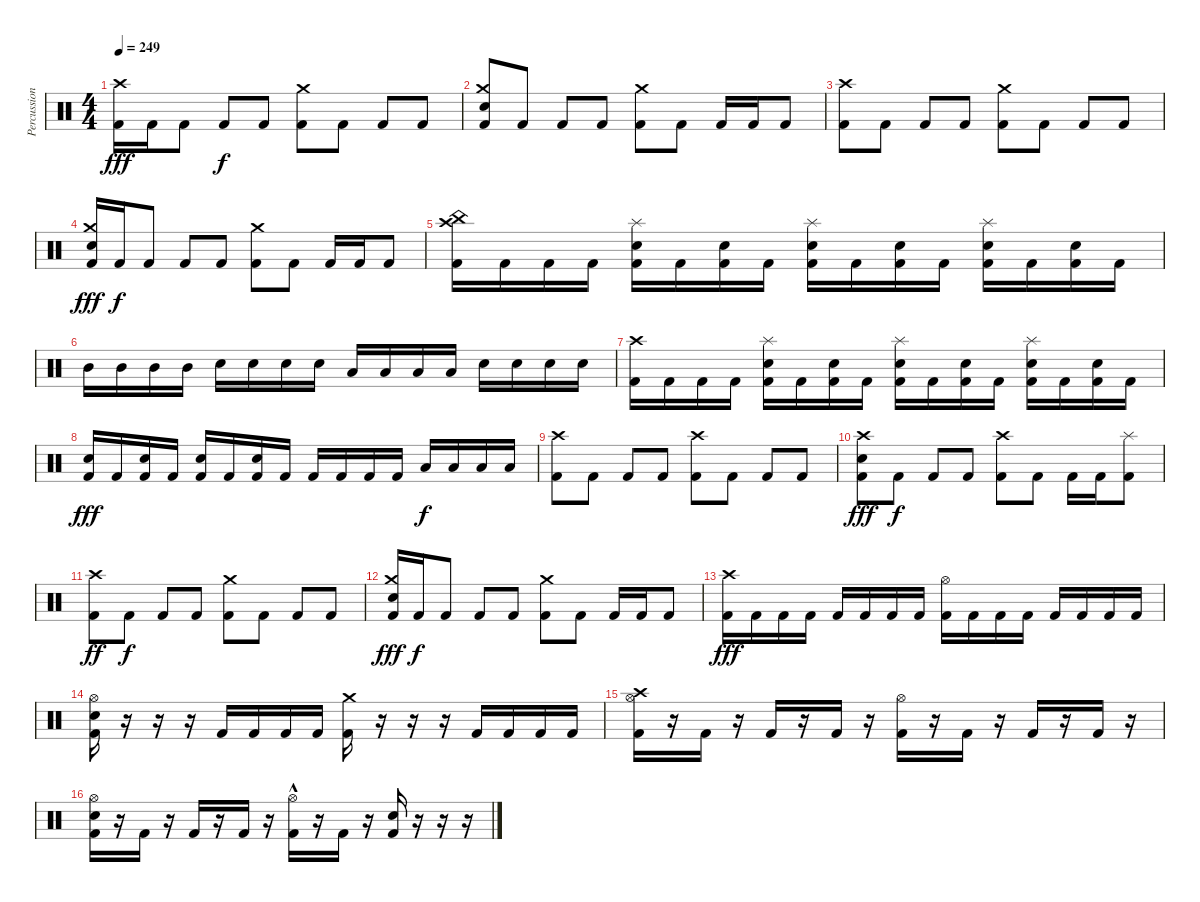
\track ("Percussion" "Percussion") {instrument percussion}
\staff {score}
\articulation defaults
\ts (4 4)
\tempo 249
\clef neutral
\ks c
("Crash high (hit)" "Kick (hit) 2").16{dy fff} "Kick (hit) 2".16 "Kick (hit) 2".8 "Kick (hit) 2".8{dy f} "Kick (hit) 2".8 ("Crash medium (hit)" "Kick (hit) 2").8 "Kick (hit) 2".8 "Kick (hit) 2".8 "Kick (hit) 2".8 |
("Crash medium (hit)" "Electric Snare (hit)" "Kick (hit) 2").8 "Kick (hit) 2".8 "Kick (hit) 2".8 "Kick (hit) 2".8 ("Crash medium (hit)" "Kick (hit) 2").8 "Kick (hit) 2".8 "Kick (hit) 2".16 "Kick (hit) 2".16 "Kick (hit) 2".8 |
("Crash high (hit)" "Kick (hit) 2").8 "Kick (hit) 2".8 "Kick (hit) 2".8 "Kick (hit) 2".8 ("Crash medium (hit)" "Kick (hit) 2").8 "Kick (hit) 2".8 "Kick (hit) 2".8 "Kick (hit) 2".8 |
("Crash medium (hit)" "Electric Snare (hit)" "Kick (hit) 2").16{dy fff} "Kick (hit) 2".16{dy f} "Kick (hit) 2".8 "Kick (hit) 2".8 "Kick (hit) 2".8 ("Crash medium (hit)" "Kick (hit) 2").8 "Kick (hit) 2".8 "Kick (hit) 2".16 "Kick (hit) 2".16 "Kick (hit) 2".8 |
("Crash high (hit)" "China (hit)" "Kick (hit) 2").16 "Kick (hit) 2".16 "Kick (hit) 2".16 "Kick (hit) 2".16 ("Splash (hit)" "Electric Snare (hit)" "Kick (hit) 2").16 "Kick (hit) 2".16 ("Electric Snare (hit)" "Kick (hit) 2").16 "Kick (hit) 2".16 ("Splash (hit)" "Electric Snare (hit)" "Kick (hit) 2").16 "Kick (hit) 2".16 ("Electric Snare (hit)" "Kick (hit) 2").16 "Kick (hit) 2".16 ("Splash (hit)" "Electric Snare (hit)" "Kick (hit) 2").16 "Kick (hit) 2".16 ("Electric Snare (hit)" "Kick (hit) 2").16 "Kick (hit) 2".16 |
"Mid Tom (hit)".16 "Mid Tom (hit)".16 "Mid Tom (hit)".16 "Mid Tom (hit)".16 "Electric Snare (hit)".16 "Electric Snare (hit)".16 "Electric Snare (hit)".16 "Electric Snare (hit)".16 "Low Tom (hit)".16 "Low Tom (hit)".16 "Low Tom (hit)".16 "Low Tom (hit)".16 "Electric Snare (hit)".16 "Electric Snare (hit)".16 "Electric Snare (hit)".16 "Electric Snare (hit)".16 |
("Crash high (hit)" "Kick (hit) 2").16 "Kick (hit) 2".16 "Kick (hit) 2".16 "Kick (hit) 2".16 ("Splash (hit)" "Electric Snare (hit)" "Kick (hit) 2").16 "Kick (hit) 2".16 ("Electric Snare (hit)" "Kick (hit) 2").16 "Kick (hit) 2".16 ("Splash (hit)" "Electric Snare (hit)" "Kick (hit) 2").16 "Kick (hit) 2".16 ("Electric Snare (hit)" "Kick (hit) 2").16 "Kick (hit) 2".16 ("Splash (hit)" "Electric Snare (hit)" "Kick (hit) 2").16 "Kick (hit) 2".16 ("Electric Snare (hit)" "Kick (hit) 2").16 "Kick (hit) 2".16 |
("Electric Snare (hit)" "Kick (hit) 2").16{dy fff} "Kick (hit) 2".16 ("Electric Snare (hit)" "Kick (hit) 2").16 "Kick (hit) 2".16 ("Electric Snare (hit)" "Kick (hit) 2").16 "Kick (hit) 2".16 ("Electric Snare (hit)" "Kick (hit) 2").16 "Kick (hit) 2".16 "Kick (hit) 2".16 "Kick (hit) 2".16 "Kick (hit) 2".16 "Kick (hit) 2".16 "Low Tom (hit)".16{dy f} "Low Tom (hit)".16 "Low Tom (hit)".16 "Low Tom (hit)".16 |
("Crash high (hit)" "Kick (hit) 2").8 "Kick (hit) 2".8 "Kick (hit) 2".8 "Kick (hit) 2".8 ("Crash high (hit)" "Kick (hit) 2").8 "Kick (hit) 2".8 "Kick (hit) 2".8 "Kick (hit) 2".8 |
("Crash high (hit)" "Electric Snare (hit)" "Kick (hit) 2").8{dy fff} "Kick (hit) 2".8{dy f} "Kick (hit) 2".8 "Kick (hit) 2".8 ("Crash high (hit)" "Kick (hit) 2").8 "Kick (hit) 2".8 "Kick (hit) 2".16 "Kick (hit) 2".16 ("Splash (hit)" "Kick (hit) 2").8 |
("Crash high (hit)" "Kick (hit) 2").8{dy ff} "Kick (hit) 2".8{dy f} "Kick (hit) 2".8 "Kick (hit) 2".8 ("Crash medium (hit)" "Kick (hit) 2").8 "Kick (hit) 2".8 "Kick (hit) 2".8 "Kick (hit) 2".8 |
("Crash medium (hit)" "Electric Snare (hit)" "Kick (hit) 2").16{dy fff} "Kick (hit) 2".16{dy f} "Kick (hit) 2".8 "Kick (hit) 2".8 "Kick (hit) 2".8 ("Crash medium (hit)" "Kick (hit) 2").8 "Kick (hit) 2".8 "Kick (hit) 2".16 "Kick (hit) 2".16 "Kick (hit) 2".8 |
("Crash high (hit)" "Kick (hit) 2").16{dy fff} "Kick (hit) 2".16 "Kick (hit) 2".16 "Kick (hit) 2".16 "Kick (hit) 2".16 "Kick (hit) 2".16 "Kick (hit) 2".16 "Kick (hit) 2".16 ("Hi-Hat (open)" "Kick (hit) 2").16 "Kick (hit) 2".16 "Kick (hit) 2".16 "Kick (hit) 2".16 "Kick (hit) 2".16 "Kick (hit) 2".16 "Kick (hit) 2".16 "Kick (hit) 2".16 |
("Hi-Hat (open)" "Electric Snare (hit)" "Kick (hit) 2").16 r.16 r.16 r.16 "Kick (hit) 2".16 "Kick (hit) 2".16 "Kick (hit) 2".16 "Kick (hit) 2".16 ("Crash medium (hit)" "Kick (hit) 2").16 r.16 r.16 r.16 "Kick (hit) 2".16 "Kick (hit) 2".16 "Kick (hit) 2".16 "Kick (hit) 2".16 |
("Crash high (hit)" "Hi-Hat (open)" "Kick (hit) 2").16 r.16 "Kick (hit) 2".16 r.16 "Kick (hit) 2".16 r.16 "Kick (hit) 2".16 r.16 ("Hi-Hat (open)" "Kick (hit) 2").16 r.16 "Kick (hit) 2".16 r.16 "Kick (hit) 2".16 r.16 "Kick (hit) 2".16 r.16 |
("Hi-Hat (open)" "Electric Snare (hit)" "Kick (hit) 2").16 r.16 "Kick (hit) 2".16 r.16 "Kick (hit) 2".16 r.16 "Kick (hit) 2".16 r.16 ("Hi-Hat (open)" "Kick (hit) 2"{hac}).16 r.16 "Kick (hit) 2".16 r.16 ("Electric Snare (hit)" "Kick (hit) 2").16 r.16 r.16 r.16
